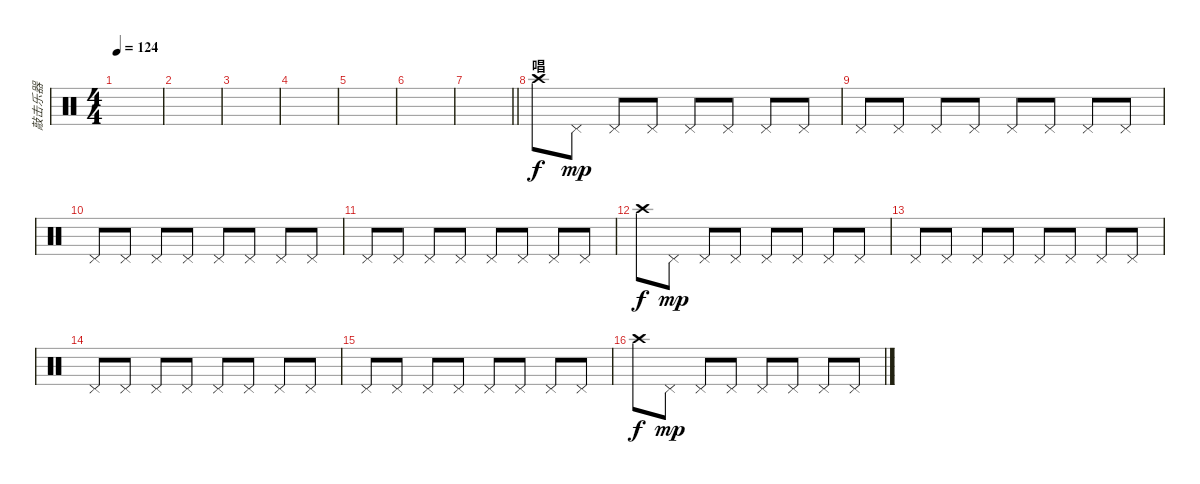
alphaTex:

\track ("敲击乐器" "敲击乐器") {instrument percussion}
\staff {score}
\articulation defaults
\ts (4 4)
\tempo 124
\clef neutral
\ks c
|
|
|
|
|
|
\barLineRight lightlight
|
\section ("" "唱")
"Crash high (hit)".8 "Pedal Hi-Hat (hit)".8{dy mp} "Pedal Hi-Hat (hit)".8 "Pedal Hi-Hat (hit)".8 "Pedal Hi-Hat (hit)".8 "Pedal Hi-Hat (hit)".8 "Pedal Hi-Hat (hit)".8 "Pedal Hi-Hat (hit)".8 |
"Pedal Hi-Hat (hit)".8 "Pedal Hi-Hat (hit)".8 "Pedal Hi-Hat (hit)".8 "Pedal Hi-Hat (hit)".8 "Pedal Hi-Hat (hit)".8 "Pedal Hi-Hat (hit)".8 "Pedal Hi-Hat (hit)".8 "Pedal Hi-Hat (hit)".8 |
"Pedal Hi-Hat (hit)".8 "Pedal Hi-Hat (hit)".8 "Pedal Hi-Hat (hit)".8 "Pedal Hi-Hat (hit)".8 "Pedal Hi-Hat (hit)".8 "Pedal Hi-Hat (hit)".8 "Pedal Hi-Hat (hit)".8 "Pedal Hi-Hat (hit)".8 |
"Pedal Hi-Hat (hit)".8 "Pedal Hi-Hat (hit)".8 "Pedal Hi-Hat (hit)".8 "Pedal Hi-Hat (hit)".8 "Pedal Hi-Hat (hit)".8 "Pedal Hi-Hat (hit)".8 "Pedal Hi-Hat (hit)".8 "Pedal Hi-Hat (hit)".8 |
"Crash high (hit)".8{dy f} "Pedal Hi-Hat (hit)".8{dy mp} "Pedal Hi-Hat (hit)".8 "Pedal Hi-Hat (hit)".8 "Pedal Hi-Hat (hit)".8 "Pedal Hi-Hat (hit)".8 "Pedal Hi-Hat (hit)".8 "Pedal Hi-Hat (hit)".8 |
"Pedal Hi-Hat (hit)".8 "Pedal Hi-Hat (hit)".8 "Pedal Hi-Hat (hit)".8 "Pedal Hi-Hat (hit)".8 "Pedal Hi-Hat (hit)".8 "Pedal Hi-Hat (hit)".8 "Pedal Hi-Hat (hit)".8 "Pedal Hi-Hat (hit)".8 |
"Pedal Hi-Hat (hit)".8 "Pedal Hi-Hat (hit)".8 "Pedal Hi-Hat (hit)".8 "Pedal Hi-Hat (hit)".8 "Pedal Hi-Hat (hit)".8 "Pedal Hi-Hat (hit)".8 "Pedal Hi-Hat (hit)".8 "Pedal Hi-Hat (hit)".8 |
"Pedal Hi-Hat (hit)".8 "Pedal Hi-Hat (hit)".8 "Pedal Hi-Hat (hit)".8 "Pedal Hi-Hat (hit)".8 "Pedal Hi-Hat (hit)".8 "Pedal Hi-Hat (hit)".8 "Pedal Hi-Hat (hit)".8 "Pedal Hi-Hat (hit)".8 |
"Crash high (hit)".8{dy f} "Pedal Hi-Hat (hit)".8{dy mp} "Pedal Hi-Hat (hit)".8 "Pedal Hi-Hat (hit)".8 "Pedal Hi-Hat (hit)".8 "Pedal Hi-Hat (hit)".8 "Pedal Hi-Hat (hit)".8 "Pedal Hi-Hat (hit)".8
